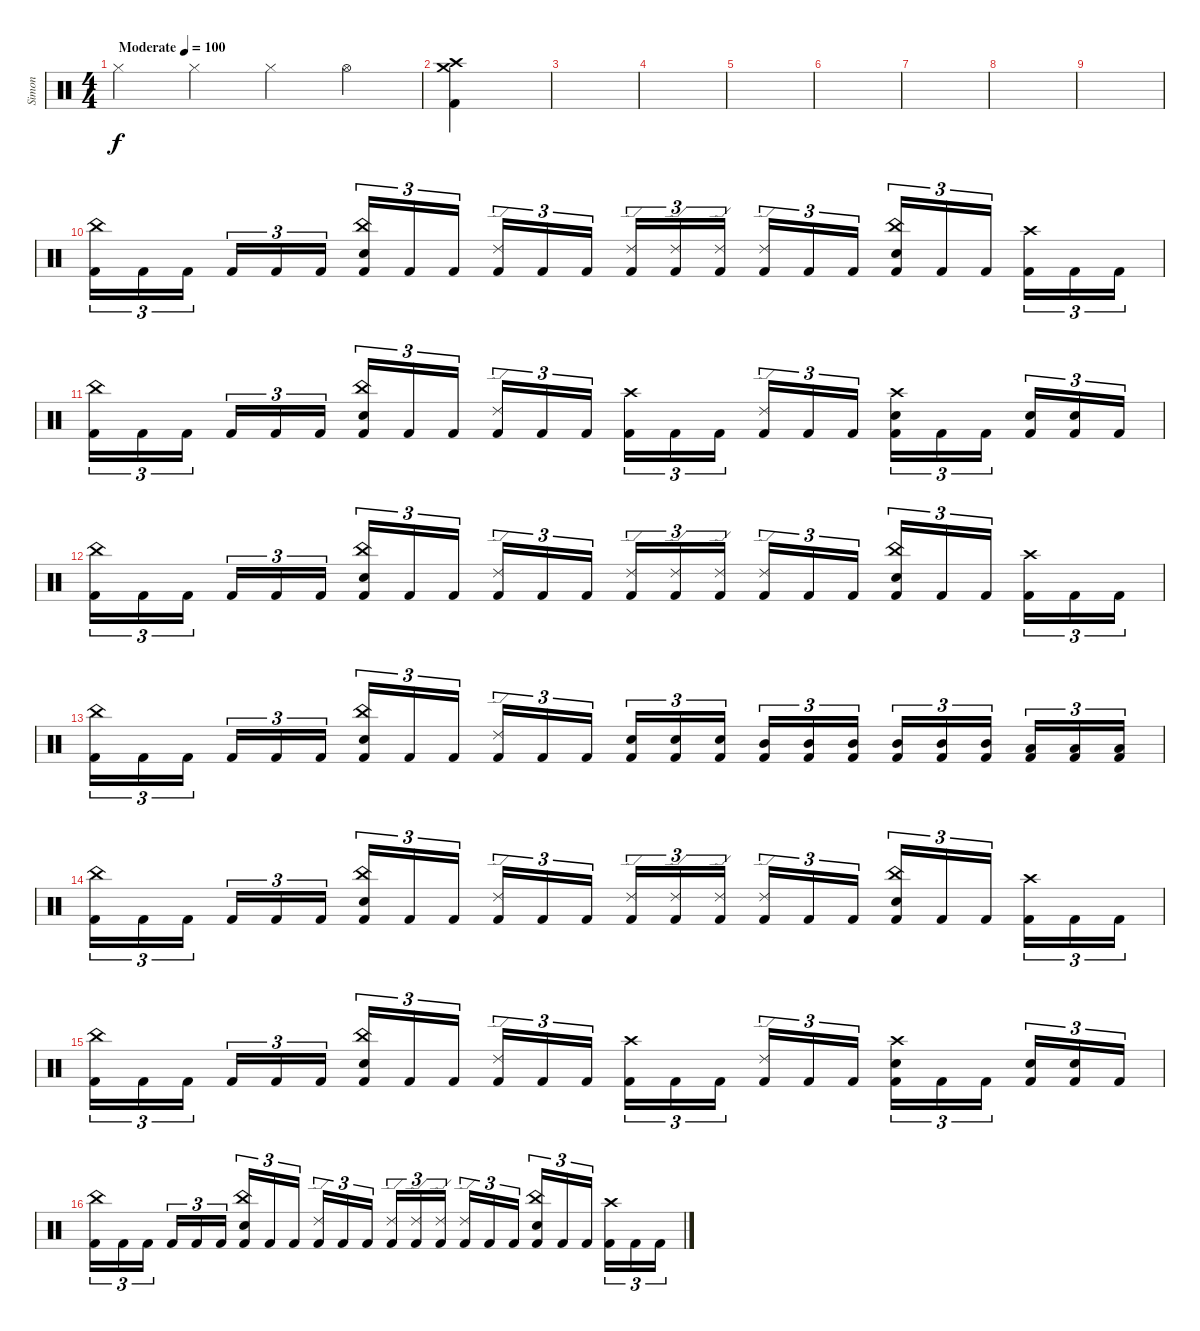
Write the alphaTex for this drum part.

\track ("Simon" "Simon") {instrument percussion}
\staff {score}
\articulation defaults
\ts (4 4)
\tempo (100 "Moderate")
\clef neutral
\ks c "Hi-Hat (closed)".4{dy f} "Hi-Hat (closed)".4 "Hi-Hat (closed)".4 "Hi-Hat (open)".4
|
("Crash high (hit)" "Crash medium (hit)" "Kick (hit) 2").4 |
|
|
|
|
|
|
|
("China (hit)" "Kick (hit) 2").16{tu (3 2)} "Kick (hit) 2".16{tu (3 2)} "Kick (hit) 2".16{tu (3 2) beam splitsecondary} "Kick (hit) 2".16{tu (3 2)} "Kick (hit) 2".16{tu (3 2)} "Kick (hit) 2".16{tu (3 2)} ("China (hit)" "Electric Snare (hit)" "Kick (hit) 2").16{tu (3 2)} "Kick (hit) 2".16{tu (3 2)} "Kick (hit) 2".16{tu (3 2) beam splitsecondary} ("Ride (edge) 2" "Kick (hit) 2").16{tu (3 2)} "Kick (hit) 2".16{tu (3 2)} "Kick (hit) 2".16{tu (3 2)} ("Ride (edge) 2" "Kick (hit) 2").16{tu (3 2)} ("Ride (edge) 2" "Kick (hit) 2").16{tu (3 2)} ("Ride (edge) 2" "Kick (hit) 2").16{tu (3 2) beam splitsecondary} ("Ride (edge) 2" "Kick (hit) 2").16{tu (3 2)} "Kick (hit) 2".16{tu (3 2)} "Kick (hit) 2".16{tu (3 2)} ("China (hit)" "Electric Snare (hit)" "Kick (hit) 2").16{tu (3 2)} "Kick (hit) 2".16{tu (3 2)} "Kick (hit) 2".16{tu (3 2) beam splitsecondary} ("Crash high (hit)" "Kick (hit) 2").16{tu (3 2)} "Kick (hit) 2".16{tu (3 2)} "Kick (hit) 2".16{tu (3 2)} |
("China (hit)" "Kick (hit) 2").16{tu (3 2)} "Kick (hit) 2".16{tu (3 2)} "Kick (hit) 2".16{tu (3 2) beam splitsecondary} "Kick (hit) 2".16{tu (3 2)} "Kick (hit) 2".16{tu (3 2)} "Kick (hit) 2".16{tu (3 2)} ("China (hit)" "Electric Snare (hit)" "Kick (hit) 2").16{tu (3 2)} "Kick (hit) 2".16{tu (3 2)} "Kick (hit) 2".16{tu (3 2) beam splitsecondary} ("Ride (edge) 2" "Kick (hit) 2").16{tu (3 2)} "Kick (hit) 2".16{tu (3 2)} "Kick (hit) 2".16{tu (3 2)} ("Crash high (hit)" "Kick (hit) 2").16{tu (3 2)} "Kick (hit) 2".16{tu (3 2)} "Kick (hit) 2".16{tu (3 2) beam splitsecondary} ("Ride (edge) 2" "Kick (hit) 2").16{tu (3 2)} "Kick (hit) 2".16{tu (3 2)} "Kick (hit) 2".16{tu (3 2)} ("Crash high (hit)" "Electric Snare (hit)" "Kick (hit) 2").16{tu (3 2)} "Kick (hit) 2".16{tu (3 2)} "Kick (hit) 2".16{tu (3 2) beam splitsecondary} ("Electric Snare (hit)" "Kick (hit) 2").16{tu (3 2)} ("Electric Snare (hit)" "Kick (hit) 2").16{tu (3 2)} "Kick (hit) 2".16{tu (3 2)} |
("China (hit)" "Kick (hit) 2").16{tu (3 2)} "Kick (hit) 2".16{tu (3 2)} "Kick (hit) 2".16{tu (3 2) beam splitsecondary} "Kick (hit) 2".16{tu (3 2)} "Kick (hit) 2".16{tu (3 2)} "Kick (hit) 2".16{tu (3 2)} ("China (hit)" "Electric Snare (hit)" "Kick (hit) 2").16{tu (3 2)} "Kick (hit) 2".16{tu (3 2)} "Kick (hit) 2".16{tu (3 2) beam splitsecondary} ("Ride (edge) 2" "Kick (hit) 2").16{tu (3 2)} "Kick (hit) 2".16{tu (3 2)} "Kick (hit) 2".16{tu (3 2)} ("Ride (edge) 2" "Kick (hit) 2").16{tu (3 2)} ("Ride (edge) 2" "Kick (hit) 2").16{tu (3 2)} ("Ride (edge) 2" "Kick (hit) 2").16{tu (3 2) beam splitsecondary} ("Ride (edge) 2" "Kick (hit) 2").16{tu (3 2)} "Kick (hit) 2".16{tu (3 2)} "Kick (hit) 2".16{tu (3 2)} ("China (hit)" "Electric Snare (hit)" "Kick (hit) 2").16{tu (3 2)} "Kick (hit) 2".16{tu (3 2)} "Kick (hit) 2".16{tu (3 2) beam splitsecondary} ("Crash high (hit)" "Kick (hit) 2").16{tu (3 2)} "Kick (hit) 2".16{tu (3 2)} "Kick (hit) 2".16{tu (3 2)} |
("China (hit)" "Kick (hit) 2").16{tu (3 2)} "Kick (hit) 2".16{tu (3 2)} "Kick (hit) 2".16{tu (3 2) beam splitsecondary} "Kick (hit) 2".16{tu (3 2)} "Kick (hit) 2".16{tu (3 2)} "Kick (hit) 2".16{tu (3 2)} ("China (hit)" "Electric Snare (hit)" "Kick (hit) 2").16{tu (3 2)} "Kick (hit) 2".16{tu (3 2)} "Kick (hit) 2".16{tu (3 2) beam splitsecondary} ("Ride (edge) 2" "Kick (hit) 2").16{tu (3 2)} "Kick (hit) 2".16{tu (3 2)} "Kick (hit) 2".16{tu (3 2)} ("Electric Snare (hit)" "Kick (hit) 2").16{tu (3 2)} ("Electric Snare (hit)" "Kick (hit) 2").16{tu (3 2)} ("Electric Snare (hit)" "Kick (hit) 2").16{tu (3 2) beam splitsecondary} ("Mid Tom (hit)" "Kick (hit) 2").16{tu (3 2)} ("Mid Tom (hit)" "Kick (hit) 2").16{tu (3 2)} ("Mid Tom (hit)" "Kick (hit) 2").16{tu (3 2)} ("Mid Tom (hit)" "Kick (hit) 2").16{tu (3 2)} ("Mid Tom (hit)" "Kick (hit) 2").16{tu (3 2)} ("Mid Tom (hit)" "Kick (hit) 2").16{tu (3 2) beam splitsecondary} ("Low Tom (hit)" "Kick (hit) 2").16{tu (3 2)} ("Low Tom (hit)" "Kick (hit) 2").16{tu (3 2)} ("Low Tom (hit)" "Kick (hit) 2").16{tu (3 2)} |
("China (hit)" "Kick (hit) 2").16{tu (3 2)} "Kick (hit) 2".16{tu (3 2)} "Kick (hit) 2".16{tu (3 2) beam splitsecondary} "Kick (hit) 2".16{tu (3 2)} "Kick (hit) 2".16{tu (3 2)} "Kick (hit) 2".16{tu (3 2)} ("China (hit)" "Electric Snare (hit)" "Kick (hit) 2").16{tu (3 2)} "Kick (hit) 2".16{tu (3 2)} "Kick (hit) 2".16{tu (3 2) beam splitsecondary} ("Ride (edge) 2" "Kick (hit) 2").16{tu (3 2)} "Kick (hit) 2".16{tu (3 2)} "Kick (hit) 2".16{tu (3 2)} ("Ride (edge) 2" "Kick (hit) 2").16{tu (3 2)} ("Ride (edge) 2" "Kick (hit) 2").16{tu (3 2)} ("Ride (edge) 2" "Kick (hit) 2").16{tu (3 2) beam splitsecondary} ("Ride (edge) 2" "Kick (hit) 2").16{tu (3 2)} "Kick (hit) 2".16{tu (3 2)} "Kick (hit) 2".16{tu (3 2)} ("China (hit)" "Electric Snare (hit)" "Kick (hit) 2").16{tu (3 2)} "Kick (hit) 2".16{tu (3 2)} "Kick (hit) 2".16{tu (3 2) beam splitsecondary} ("Crash high (hit)" "Kick (hit) 2").16{tu (3 2)} "Kick (hit) 2".16{tu (3 2)} "Kick (hit) 2".16{tu (3 2)} |
("China (hit)" "Kick (hit) 2").16{tu (3 2)} "Kick (hit) 2".16{tu (3 2)} "Kick (hit) 2".16{tu (3 2) beam splitsecondary} "Kick (hit) 2".16{tu (3 2)} "Kick (hit) 2".16{tu (3 2)} "Kick (hit) 2".16{tu (3 2)} ("China (hit)" "Electric Snare (hit)" "Kick (hit) 2").16{tu (3 2)} "Kick (hit) 2".16{tu (3 2)} "Kick (hit) 2".16{tu (3 2) beam splitsecondary} ("Ride (edge) 2" "Kick (hit) 2").16{tu (3 2)} "Kick (hit) 2".16{tu (3 2)} "Kick (hit) 2".16{tu (3 2)} ("Crash high (hit)" "Kick (hit) 2").16{tu (3 2)} "Kick (hit) 2".16{tu (3 2)} "Kick (hit) 2".16{tu (3 2) beam splitsecondary} ("Ride (edge) 2" "Kick (hit) 2").16{tu (3 2)} "Kick (hit) 2".16{tu (3 2)} "Kick (hit) 2".16{tu (3 2)} ("Crash high (hit)" "Electric Snare (hit)" "Kick (hit) 2").16{tu (3 2)} "Kick (hit) 2".16{tu (3 2)} "Kick (hit) 2".16{tu (3 2) beam splitsecondary} ("Electric Snare (hit)" "Kick (hit) 2").16{tu (3 2)} ("Electric Snare (hit)" "Kick (hit) 2").16{tu (3 2)} "Kick (hit) 2".16{tu (3 2)} |
("China (hit)" "Kick (hit) 2").16{tu (3 2)} "Kick (hit) 2".16{tu (3 2)} "Kick (hit) 2".16{tu (3 2) beam splitsecondary} "Kick (hit) 2".16{tu (3 2)} "Kick (hit) 2".16{tu (3 2)} "Kick (hit) 2".16{tu (3 2)} ("China (hit)" "Electric Snare (hit)" "Kick (hit) 2").16{tu (3 2)} "Kick (hit) 2".16{tu (3 2)} "Kick (hit) 2".16{tu (3 2) beam splitsecondary} ("Ride (edge) 2" "Kick (hit) 2").16{tu (3 2)} "Kick (hit) 2".16{tu (3 2)} "Kick (hit) 2".16{tu (3 2)} ("Ride (edge) 2" "Kick (hit) 2").16{tu (3 2)} ("Ride (edge) 2" "Kick (hit) 2").16{tu (3 2)} ("Ride (edge) 2" "Kick (hit) 2").16{tu (3 2) beam splitsecondary} ("Ride (edge) 2" "Kick (hit) 2").16{tu (3 2)} "Kick (hit) 2".16{tu (3 2)} "Kick (hit) 2".16{tu (3 2)} ("China (hit)" "Electric Snare (hit)" "Kick (hit) 2").16{tu (3 2)} "Kick (hit) 2".16{tu (3 2)} "Kick (hit) 2".16{tu (3 2) beam splitsecondary} ("Crash high (hit)" "Kick (hit) 2").16{tu (3 2)} "Kick (hit) 2".16{tu (3 2)} "Kick (hit) 2".16{tu (3 2)}
